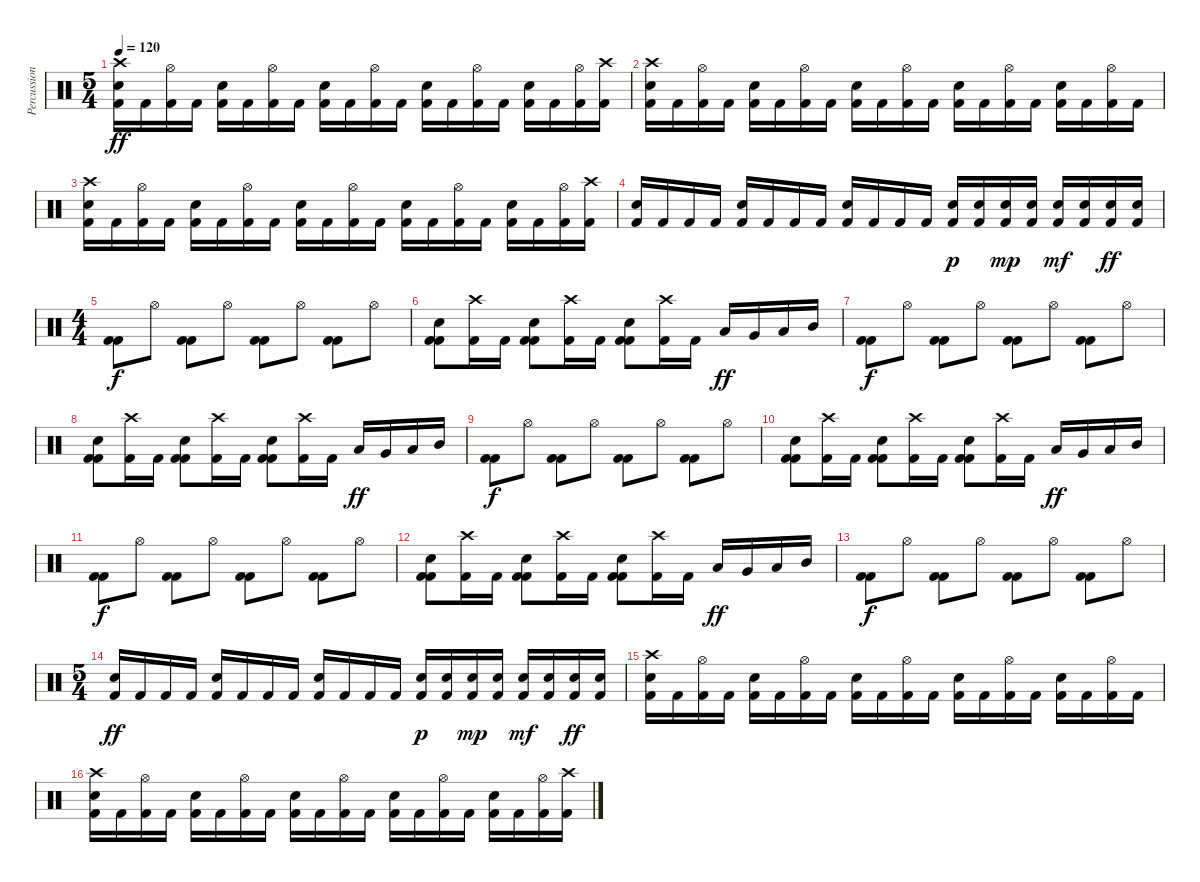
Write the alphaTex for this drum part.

\track ("Percussioni" "Percussion") {instrument percussion}
\staff {score}
\articulation defaults
\ts (5 4)
\tempo 120
\clef neutral
\ks c
("Kick (hit) 2" "Crash high (hit)" "Electric Snare (hit)").16{dy ff} "Kick (hit) 2".16 ("Kick (hit) 2" "Hi-Hat (open)").16 "Kick (hit) 2".16 ("Kick (hit) 2" "Electric Snare (hit)").16 "Kick (hit) 2".16 ("Kick (hit) 2" "Hi-Hat (open)").16 "Kick (hit) 2".16 ("Kick (hit) 2" "Electric Snare (hit)").16 "Kick (hit) 2".16 ("Kick (hit) 2" "Hi-Hat (open)").16 "Kick (hit) 2".16 ("Kick (hit) 2" "Electric Snare (hit)").16 "Kick (hit) 2".16 ("Kick (hit) 2" "Hi-Hat (open)").16 "Kick (hit) 2".16 ("Kick (hit) 2" "Electric Snare (hit)").16 "Kick (hit) 2".16 ("Kick (hit) 2" "Hi-Hat (open)").16 ("Kick (hit) 2" "Crash high (hit)").16 |
("Kick (hit) 2" "Crash high (hit)" "Electric Snare (hit)").16 "Kick (hit) 2".16 ("Kick (hit) 2" "Hi-Hat (open)").16 "Kick (hit) 2".16 ("Kick (hit) 2" "Electric Snare (hit)").16 "Kick (hit) 2".16 ("Kick (hit) 2" "Hi-Hat (open)").16 "Kick (hit) 2".16 ("Kick (hit) 2" "Electric Snare (hit)").16 "Kick (hit) 2".16 ("Kick (hit) 2" "Hi-Hat (open)").16 "Kick (hit) 2".16 ("Kick (hit) 2" "Electric Snare (hit)").16 "Kick (hit) 2".16 ("Kick (hit) 2" "Hi-Hat (open)").16 "Kick (hit) 2".16 ("Kick (hit) 2" "Electric Snare (hit)").16 "Kick (hit) 2".16 ("Kick (hit) 2" "Hi-Hat (open)").16 "Kick (hit) 2".16 |
("Kick (hit) 2" "Crash high (hit)" "Electric Snare (hit)").16 "Kick (hit) 2".16 ("Kick (hit) 2" "Hi-Hat (open)").16 "Kick (hit) 2".16 ("Kick (hit) 2" "Electric Snare (hit)").16 "Kick (hit) 2".16 ("Kick (hit) 2" "Hi-Hat (open)").16 "Kick (hit) 2".16 ("Kick (hit) 2" "Electric Snare (hit)").16 "Kick (hit) 2".16 ("Kick (hit) 2" "Hi-Hat (open)").16 "Kick (hit) 2".16 ("Kick (hit) 2" "Electric Snare (hit)").16 "Kick (hit) 2".16 ("Kick (hit) 2" "Hi-Hat (open)").16 "Kick (hit) 2".16 ("Kick (hit) 2" "Electric Snare (hit)").16 "Kick (hit) 2".16 ("Kick (hit) 2" "Hi-Hat (open)").16 ("Kick (hit) 2" "Crash high (hit)").16 |
("Kick (hit) 2" "Electric Snare (hit)").16 "Kick (hit) 2".16 "Kick (hit) 2".16 "Kick (hit) 2".16 ("Kick (hit) 2" "Electric Snare (hit)").16 "Kick (hit) 2".16 "Kick (hit) 2".16 "Kick (hit) 2".16 ("Kick (hit) 2" "Electric Snare (hit)").16 "Kick (hit) 2".16 "Kick (hit) 2".16 "Kick (hit) 2".16 ("Kick (hit) 2" "Electric Snare (hit)").16{dy p} ("Kick (hit) 2" "Electric Snare (hit)").16 ("Kick (hit) 2" "Electric Snare (hit)").16{dy mp} ("Kick (hit) 2" "Electric Snare (hit)").16 ("Kick (hit) 2" "Electric Snare (hit)").16{dy mf} ("Kick (hit) 2" "Electric Snare (hit)").16 ("Kick (hit) 2" "Electric Snare (hit)").16{dy ff} ("Kick (hit) 2" "Electric Snare (hit)").16 |
\ts (4 4)
("Kick (hit) 2" "Kick (hit) 2").8{dy f} "Hi-Hat (open)".8 ("Kick (hit) 2" "Kick (hit) 2").8 "Hi-Hat (open)".8 ("Kick (hit) 2" "Kick (hit) 2").8 "Hi-Hat (open)".8 ("Kick (hit) 2" "Kick (hit) 2").8 "Hi-Hat (open)".8 |
("Kick (hit) 2" "Kick (hit) 2" "Electric Snare (hit)").8 ("Kick (hit) 2" "Crash high (hit)").16 "Kick (hit) 2".16 ("Kick (hit) 2" "Kick (hit) 2" "Electric Snare (hit)").8 ("Kick (hit) 2" "Crash high (hit)").16 "Kick (hit) 2".16 ("Kick (hit) 2" "Kick (hit) 2" "Electric Snare (hit)").8 ("Kick (hit) 2" "Crash high (hit)").16 "Kick (hit) 2".16 "Low Floor Tom (hit)".16{dy ff} "Very Low Tom (hit)".16 "Low Tom (hit)".16 "Mid Tom (hit)".16 |
("Kick (hit) 2" "Kick (hit) 2").8{dy f} "Hi-Hat (open)".8 ("Kick (hit) 2" "Kick (hit) 2").8 "Hi-Hat (open)".8 ("Kick (hit) 2" "Kick (hit) 2").8 "Hi-Hat (open)".8 ("Kick (hit) 2" "Kick (hit) 2").8 "Hi-Hat (open)".8 |
("Kick (hit) 2" "Kick (hit) 2" "Electric Snare (hit)").8 ("Kick (hit) 2" "Crash high (hit)").16 "Kick (hit) 2".16 ("Kick (hit) 2" "Kick (hit) 2" "Electric Snare (hit)").8 ("Kick (hit) 2" "Crash high (hit)").16 "Kick (hit) 2".16 ("Kick (hit) 2" "Kick (hit) 2" "Electric Snare (hit)").8 ("Kick (hit) 2" "Crash high (hit)").16 "Kick (hit) 2".16 "Low Floor Tom (hit)".16{dy ff} "Very Low Tom (hit)".16 "Low Tom (hit)".16 "Mid Tom (hit)".16 |
("Kick (hit) 2" "Kick (hit) 2").8{dy f} "Hi-Hat (open)".8 ("Kick (hit) 2" "Kick (hit) 2").8 "Hi-Hat (open)".8 ("Kick (hit) 2" "Kick (hit) 2").8 "Hi-Hat (open)".8 ("Kick (hit) 2" "Kick (hit) 2").8 "Hi-Hat (open)".8 |
("Kick (hit) 2" "Kick (hit) 2" "Electric Snare (hit)").8 ("Kick (hit) 2" "Crash high (hit)").16 "Kick (hit) 2".16 ("Kick (hit) 2" "Kick (hit) 2" "Electric Snare (hit)").8 ("Kick (hit) 2" "Crash high (hit)").16 "Kick (hit) 2".16 ("Kick (hit) 2" "Kick (hit) 2" "Electric Snare (hit)").8 ("Kick (hit) 2" "Crash high (hit)").16 "Kick (hit) 2".16 "Low Floor Tom (hit)".16{dy ff} "Very Low Tom (hit)".16 "Low Tom (hit)".16 "Mid Tom (hit)".16 |
("Kick (hit) 2" "Kick (hit) 2").8{dy f} "Hi-Hat (open)".8 ("Kick (hit) 2" "Kick (hit) 2").8 "Hi-Hat (open)".8 ("Kick (hit) 2" "Kick (hit) 2").8 "Hi-Hat (open)".8 ("Kick (hit) 2" "Kick (hit) 2").8 "Hi-Hat (open)".8 |
("Kick (hit) 2" "Kick (hit) 2" "Electric Snare (hit)").8 ("Kick (hit) 2" "Crash high (hit)").16 "Kick (hit) 2".16 ("Kick (hit) 2" "Kick (hit) 2" "Electric Snare (hit)").8 ("Kick (hit) 2" "Crash high (hit)").16 "Kick (hit) 2".16 ("Kick (hit) 2" "Kick (hit) 2" "Electric Snare (hit)").8 ("Kick (hit) 2" "Crash high (hit)").16 "Kick (hit) 2".16 "Low Floor Tom (hit)".16{dy ff} "Very Low Tom (hit)".16 "Low Tom (hit)".16 "Mid Tom (hit)".16 |
("Kick (hit) 2" "Kick (hit) 2").8{dy f} "Hi-Hat (open)".8 ("Kick (hit) 2" "Kick (hit) 2").8 "Hi-Hat (open)".8 ("Kick (hit) 2" "Kick (hit) 2").8 "Hi-Hat (open)".8 ("Kick (hit) 2" "Kick (hit) 2").8 "Hi-Hat (open)".8 |
\ts (5 4)
("Kick (hit) 2" "Electric Snare (hit)").16{dy ff} "Kick (hit) 2".16 "Kick (hit) 2".16 "Kick (hit) 2".16 ("Kick (hit) 2" "Electric Snare (hit)").16 "Kick (hit) 2".16 "Kick (hit) 2".16 "Kick (hit) 2".16 ("Kick (hit) 2" "Electric Snare (hit)").16 "Kick (hit) 2".16 "Kick (hit) 2".16 "Kick (hit) 2".16 ("Kick (hit) 2" "Electric Snare (hit)").16{dy p} ("Kick (hit) 2" "Electric Snare (hit)").16 ("Kick (hit) 2" "Electric Snare (hit)").16{dy mp} ("Kick (hit) 2" "Electric Snare (hit)").16 ("Kick (hit) 2" "Electric Snare (hit)").16{dy mf} ("Kick (hit) 2" "Electric Snare (hit)").16 ("Kick (hit) 2" "Electric Snare (hit)").16{dy ff} ("Kick (hit) 2" "Electric Snare (hit)").16 |
("Kick (hit) 2" "Crash high (hit)" "Electric Snare (hit)").16 "Kick (hit) 2".16 ("Kick (hit) 2" "Hi-Hat (open)").16 "Kick (hit) 2".16 ("Kick (hit) 2" "Electric Snare (hit)").16 "Kick (hit) 2".16 ("Kick (hit) 2" "Hi-Hat (open)").16 "Kick (hit) 2".16 ("Kick (hit) 2" "Electric Snare (hit)").16 "Kick (hit) 2".16 ("Kick (hit) 2" "Hi-Hat (open)").16 "Kick (hit) 2".16 ("Kick (hit) 2" "Electric Snare (hit)").16 "Kick (hit) 2".16 ("Kick (hit) 2" "Hi-Hat (open)").16 "Kick (hit) 2".16 ("Kick (hit) 2" "Electric Snare (hit)").16 "Kick (hit) 2".16 ("Kick (hit) 2" "Hi-Hat (open)").16 "Kick (hit) 2".16 |
("Kick (hit) 2" "Crash high (hit)" "Electric Snare (hit)").16 "Kick (hit) 2".16 ("Kick (hit) 2" "Hi-Hat (open)").16 "Kick (hit) 2".16 ("Kick (hit) 2" "Electric Snare (hit)").16 "Kick (hit) 2".16 ("Kick (hit) 2" "Hi-Hat (open)").16 "Kick (hit) 2".16 ("Kick (hit) 2" "Electric Snare (hit)").16 "Kick (hit) 2".16 ("Kick (hit) 2" "Hi-Hat (open)").16 "Kick (hit) 2".16 ("Kick (hit) 2" "Electric Snare (hit)").16 "Kick (hit) 2".16 ("Kick (hit) 2" "Hi-Hat (open)").16 "Kick (hit) 2".16 ("Kick (hit) 2" "Electric Snare (hit)").16 "Kick (hit) 2".16 ("Kick (hit) 2" "Hi-Hat (open)").16 ("Kick (hit) 2" "Crash high (hit)").16
